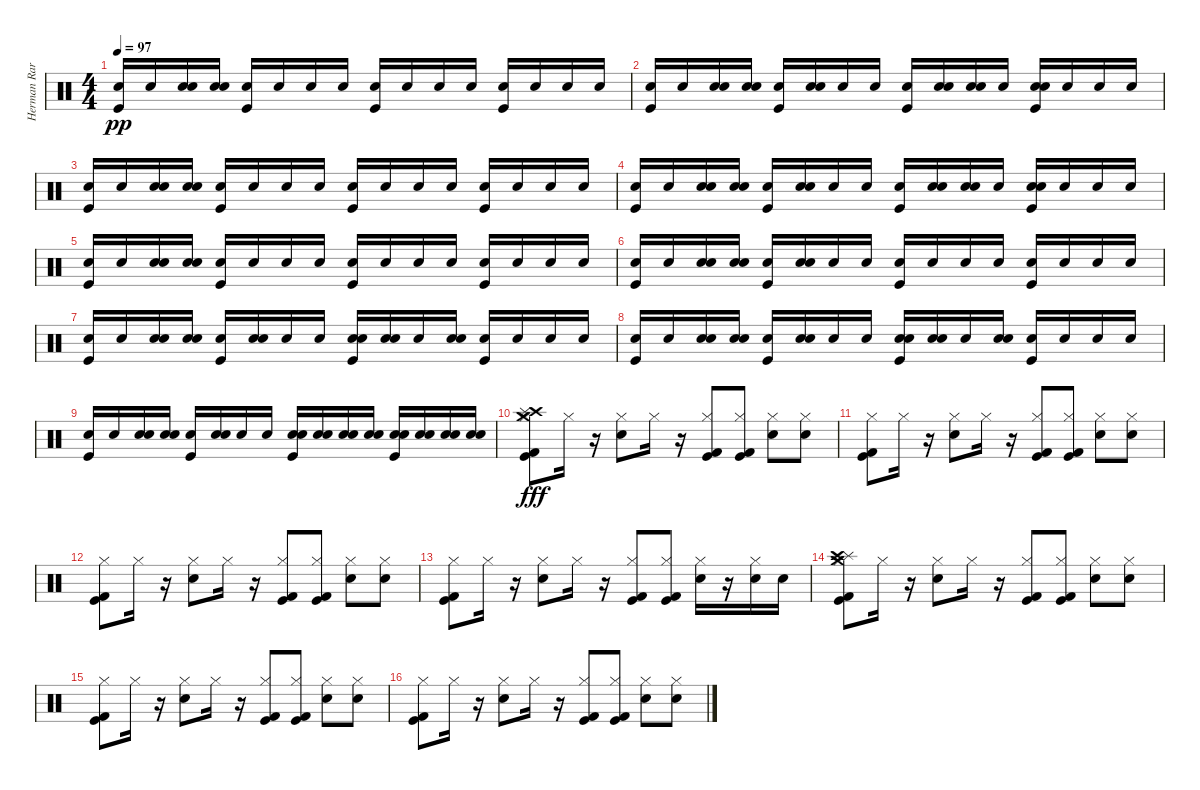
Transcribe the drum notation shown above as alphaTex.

\track ("Herman Rarebell - Drums and Percussion" "Herman Rar") {instrument percussion}
\staff {score}
\articulation defaults
\ts (4 4)
\tempo 97
\clef neutral
\ks c
("Kick (hit)" "Snare (hit) 2").16{dy pp} "Snare (hit) 2".16 ("Electric Snare (hit)" "Snare (hit) 2").16 ("Electric Snare (hit)" "Snare (hit) 2").16 ("Kick (hit)" "Snare (hit) 2").16 "Snare (hit) 2".16 "Snare (hit) 2".16 "Snare (hit) 2".16 ("Kick (hit)" "Snare (hit) 2").16 "Snare (hit) 2".16 "Snare (hit) 2".16 "Snare (hit) 2".16 ("Kick (hit)" "Snare (hit) 2").16 "Snare (hit) 2".16 "Snare (hit) 2".16 "Snare (hit) 2".16 |
("Kick (hit)" "Snare (hit) 2").16 "Snare (hit) 2".16 ("Electric Snare (hit)" "Snare (hit) 2").16 ("Electric Snare (hit)" "Snare (hit) 2").16 ("Kick (hit)" "Snare (hit) 2").16 ("Electric Snare (hit)" "Snare (hit) 2").16 "Snare (hit) 2".16 "Snare (hit) 2".16 ("Kick (hit)" "Snare (hit) 2").16 ("Electric Snare (hit)" "Snare (hit) 2").16 ("Electric Snare (hit)" "Snare (hit) 2").16 "Snare (hit) 2".16 ("Kick (hit)" "Electric Snare (hit)" "Snare (hit) 2").16 "Snare (hit) 2".16 "Snare (hit) 2".16 "Snare (hit) 2".16 |
("Kick (hit)" "Snare (hit) 2").16 "Snare (hit) 2".16 ("Electric Snare (hit)" "Snare (hit) 2").16 ("Electric Snare (hit)" "Snare (hit) 2").16 ("Kick (hit)" "Snare (hit) 2").16 "Snare (hit) 2".16 "Snare (hit) 2".16 "Snare (hit) 2".16 ("Kick (hit)" "Snare (hit) 2").16 "Snare (hit) 2".16 "Snare (hit) 2".16 "Snare (hit) 2".16 ("Kick (hit)" "Snare (hit) 2").16 "Snare (hit) 2".16 "Snare (hit) 2".16 "Snare (hit) 2".16 |
("Kick (hit)" "Snare (hit) 2").16 "Snare (hit) 2".16 ("Electric Snare (hit)" "Snare (hit) 2").16 ("Electric Snare (hit)" "Snare (hit) 2").16 ("Kick (hit)" "Snare (hit) 2").16 ("Electric Snare (hit)" "Snare (hit) 2").16 "Snare (hit) 2".16 "Snare (hit) 2".16 ("Kick (hit)" "Snare (hit) 2").16 ("Electric Snare (hit)" "Snare (hit) 2").16 ("Electric Snare (hit)" "Snare (hit) 2").16 "Snare (hit) 2".16 ("Kick (hit)" "Electric Snare (hit)" "Snare (hit) 2").16 "Snare (hit) 2".16 "Snare (hit) 2".16 "Snare (hit) 2".16 |
("Kick (hit)" "Snare (hit) 2").16 "Snare (hit) 2".16 ("Electric Snare (hit)" "Snare (hit) 2").16 ("Electric Snare (hit)" "Snare (hit) 2").16 ("Kick (hit)" "Snare (hit) 2").16 "Snare (hit) 2".16 "Snare (hit) 2".16 "Snare (hit) 2".16 ("Kick (hit)" "Snare (hit) 2").16 "Snare (hit) 2".16 "Snare (hit) 2".16 "Snare (hit) 2".16 ("Kick (hit)" "Snare (hit) 2").16 "Snare (hit) 2".16 "Snare (hit) 2".16 "Snare (hit) 2".16 |
("Kick (hit)" "Snare (hit) 2").16 "Snare (hit) 2".16 ("Electric Snare (hit)" "Snare (hit) 2").16 ("Electric Snare (hit)" "Snare (hit) 2").16 ("Kick (hit)" "Snare (hit) 2").16 ("Electric Snare (hit)" "Snare (hit) 2").16 "Snare (hit) 2".16 "Snare (hit) 2".16 ("Kick (hit)" "Snare (hit) 2").16 "Snare (hit) 2".16 "Snare (hit) 2".16 "Snare (hit) 2".16 ("Kick (hit)" "Snare (hit) 2").16 "Snare (hit) 2".16 "Snare (hit) 2".16 "Snare (hit) 2".16 |
("Kick (hit)" "Snare (hit) 2").16 "Snare (hit) 2".16 ("Electric Snare (hit)" "Snare (hit) 2").16 ("Electric Snare (hit)" "Snare (hit) 2").16 ("Kick (hit)" "Snare (hit) 2").16 ("Electric Snare (hit)" "Snare (hit) 2").16 "Snare (hit) 2".16 "Snare (hit) 2".16 ("Kick (hit)" "Electric Snare (hit)" "Snare (hit) 2").16 ("Electric Snare (hit)" "Snare (hit) 2").16 "Snare (hit) 2".16 ("Electric Snare (hit)" "Snare (hit) 2").16 ("Kick (hit)" "Snare (hit) 2").16 "Snare (hit) 2".16 "Snare (hit) 2".16 "Snare (hit) 2".16 |
("Kick (hit)" "Snare (hit) 2").16 "Snare (hit) 2".16 ("Electric Snare (hit)" "Snare (hit) 2").16 ("Electric Snare (hit)" "Snare (hit) 2").16 ("Kick (hit)" "Snare (hit) 2").16 ("Electric Snare (hit)" "Snare (hit) 2").16 "Snare (hit) 2".16 "Snare (hit) 2".16 ("Kick (hit)" "Electric Snare (hit)" "Snare (hit) 2").16 ("Electric Snare (hit)" "Snare (hit) 2").16 "Snare (hit) 2".16 ("Electric Snare (hit)" "Snare (hit) 2").16 ("Kick (hit)" "Snare (hit) 2").16 "Snare (hit) 2".16 "Snare (hit) 2".16 "Snare (hit) 2".16 |
("Kick (hit)" "Snare (hit) 2").16 "Snare (hit) 2".16 ("Electric Snare (hit)" "Snare (hit) 2").16 ("Electric Snare (hit)" "Snare (hit) 2").16 ("Kick (hit)" "Snare (hit) 2").16 ("Electric Snare (hit)" "Snare (hit) 2").16 "Snare (hit) 2".16 "Snare (hit) 2".16 ("Kick (hit)" "Electric Snare (hit)" "Snare (hit) 2").16 ("Electric Snare (hit)" "Snare (hit) 2").16 ("Electric Snare (hit)" "Snare (hit) 2").16 ("Electric Snare (hit)" "Snare (hit) 2").16 ("Kick (hit)" "Electric Snare (hit)" "Snare (hit) 2").16 ("Electric Snare (hit)" "Snare (hit) 2").16 ("Electric Snare (hit)" "Snare (hit) 2").16 ("Electric Snare (hit)" "Snare (hit) 2").16 |
("Hi-Hat (closed)" "Crash high (hit)" "Splash (hit)" "Crash medium (hit)" "Kick (hit)" "Kick (hit) 2").8{dy fff} "Hi-Hat (closed)".16 r.16 ("Snare (hit) 2" "Hi-Hat (closed)").8 "Hi-Hat (closed)".16 r.16 ("Kick (hit) 2" "Kick (hit)" "Hi-Hat (closed)").8 ("Hi-Hat (closed)" "Kick (hit) 2" "Kick (hit)").8 ("Snare (hit) 2" "Hi-Hat (closed)").8 ("Hi-Hat (closed)" "Snare (hit) 2").8 |
("Kick (hit) 2" "Kick (hit)" "Hi-Hat (closed)").8 "Hi-Hat (closed)".16 r.16 ("Snare (hit) 2" "Hi-Hat (closed)").8 "Hi-Hat (closed)".16 r.16 ("Kick (hit) 2" "Kick (hit)" "Hi-Hat (closed)").8 ("Hi-Hat (closed)" "Kick (hit) 2" "Kick (hit)").8 ("Snare (hit) 2" "Hi-Hat (closed)").8 ("Hi-Hat (closed)" "Snare (hit) 2").8 |
("Kick (hit) 2" "Kick (hit)" "Hi-Hat (closed)").8 "Hi-Hat (closed)".16 r.16 ("Snare (hit) 2" "Hi-Hat (closed)").8 "Hi-Hat (closed)".16 r.16 ("Kick (hit) 2" "Kick (hit)" "Hi-Hat (closed)").8 ("Hi-Hat (closed)" "Kick (hit) 2" "Kick (hit)").8 ("Snare (hit) 2" "Hi-Hat (closed)").8 ("Hi-Hat (closed)" "Snare (hit) 2").8 |
("Kick (hit) 2" "Kick (hit)" "Hi-Hat (closed)").8 "Hi-Hat (closed)".16 r.16 ("Snare (hit) 2" "Hi-Hat (closed)").8 "Hi-Hat (closed)".16 r.16 ("Kick (hit) 2" "Kick (hit)" "Hi-Hat (closed)").8 ("Hi-Hat (closed)" "Kick (hit) 2" "Kick (hit)").8 ("Hi-Hat (closed)" "Snare (hit) 2").16 r.16 ("Hi-Hat (closed)" "Snare (hit) 2").16 "Snare (hit) 2".16 |
("Kick (hit) 2" "Kick (hit)" "Crash medium (hit)" "Splash (hit)" "Crash high (hit)" "Hi-Hat (closed)").8 "Hi-Hat (closed)".16 r.16 ("Snare (hit) 2" "Hi-Hat (closed)").8 "Hi-Hat (closed)".16 r.16 ("Kick (hit) 2" "Kick (hit)" "Hi-Hat (closed)").8 ("Hi-Hat (closed)" "Kick (hit) 2" "Kick (hit)").8 ("Snare (hit) 2" "Hi-Hat (closed)").8 ("Hi-Hat (closed)" "Snare (hit) 2").8 |
("Kick (hit) 2" "Kick (hit)" "Hi-Hat (closed)").8 "Hi-Hat (closed)".16 r.16 ("Snare (hit) 2" "Hi-Hat (closed)").8 "Hi-Hat (closed)".16 r.16 ("Kick (hit) 2" "Kick (hit)" "Hi-Hat (closed)").8 ("Hi-Hat (closed)" "Kick (hit) 2" "Kick (hit)").8 ("Snare (hit) 2" "Hi-Hat (closed)").8 ("Hi-Hat (closed)" "Snare (hit) 2").8 |
("Kick (hit) 2" "Kick (hit)" "Hi-Hat (closed)").8 "Hi-Hat (closed)".16 r.16 ("Snare (hit) 2" "Hi-Hat (closed)").8 "Hi-Hat (closed)".16 r.16 ("Kick (hit) 2" "Kick (hit)" "Hi-Hat (closed)").8 ("Hi-Hat (closed)" "Kick (hit) 2" "Kick (hit)").8 ("Snare (hit) 2" "Hi-Hat (closed)").8 ("Hi-Hat (closed)" "Snare (hit) 2").8
